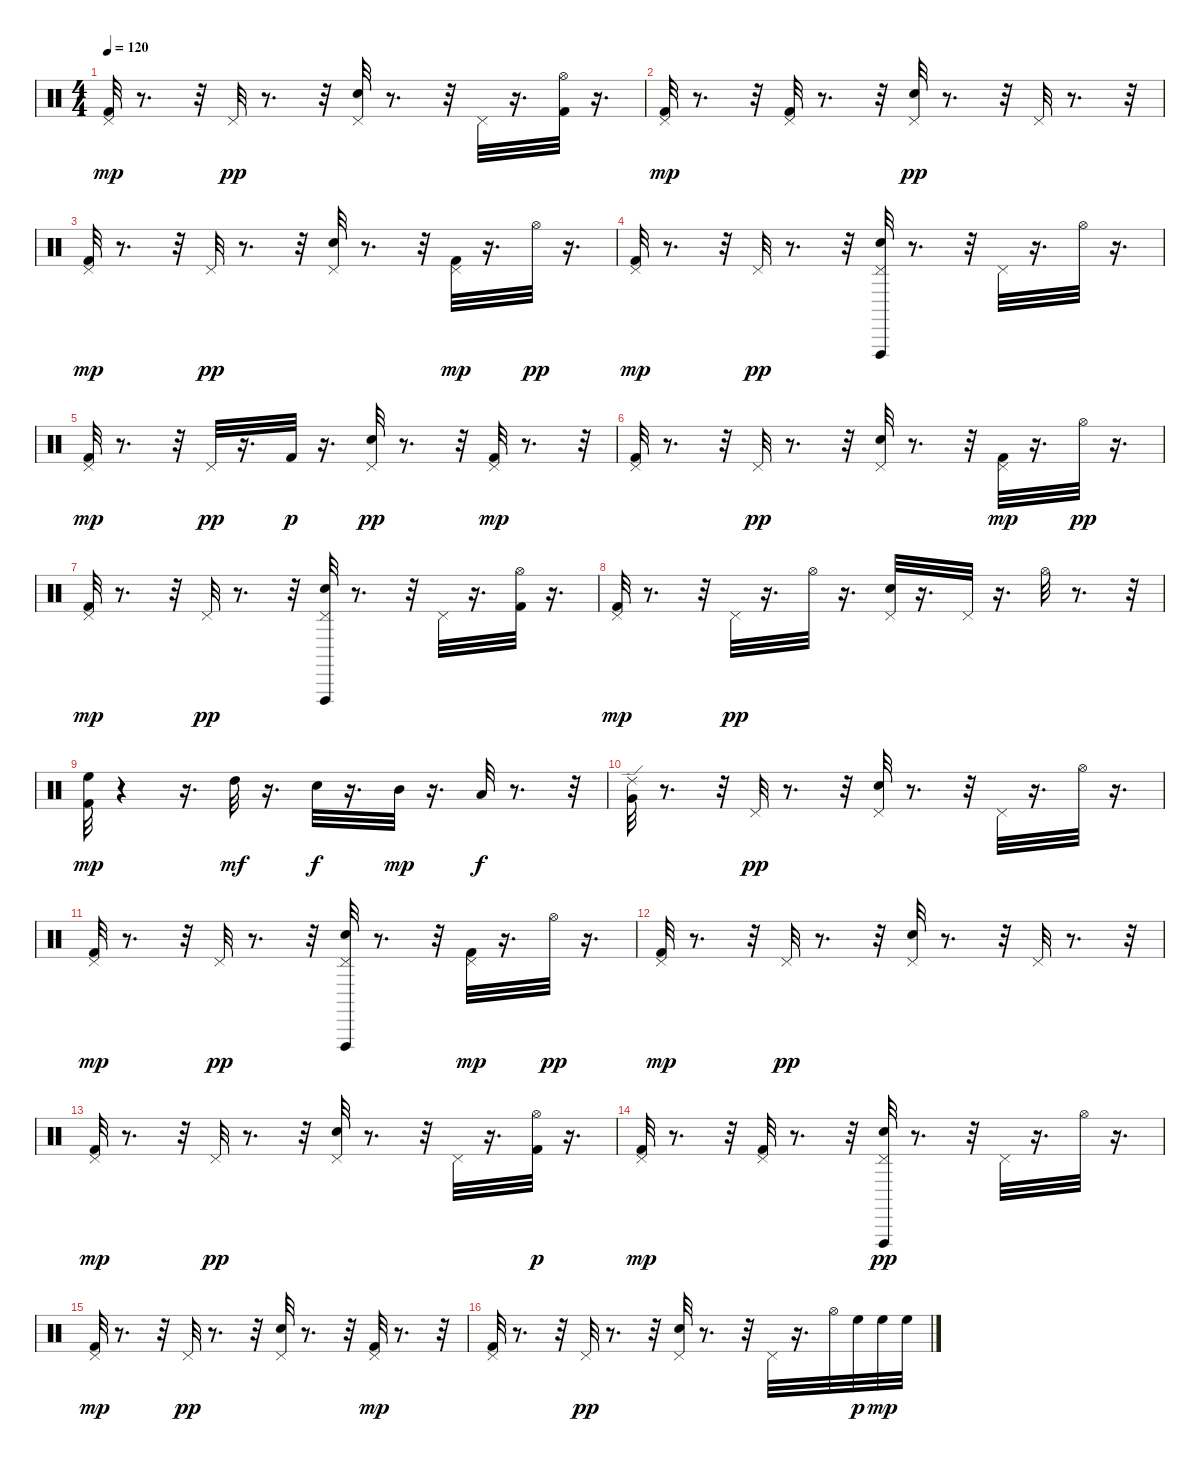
\track "" {instrument percussion}
\staff {score}
\articulation defaults
\ts (4 4)
\tempo 120
\clef neutral
\ks c
("Pedal Hi-Hat (hit)" "Kick (hit) 2").32{dy mp} r.8{d} r.32 "Pedal Hi-Hat (hit)".32{dy pp} r.8{d} r.32 ("Pedal Hi-Hat (hit)" "Snare (hit) 2").32 r.8{d} r.32 "Pedal Hi-Hat (hit)".32 r.16{d} ("Kick (hit) 2" "Hi-Hat (open)").32 r.16{d} |
("Pedal Hi-Hat (hit)" "Kick (hit) 2").32{dy mp} r.8{d} r.32 ("Pedal Hi-Hat (hit)" "Kick (hit) 2").32 r.8{d} r.32 ("Pedal Hi-Hat (hit)" "Snare (hit) 2").32{dy pp} r.8{d} r.32 "Pedal Hi-Hat (hit)".32 r.8{d} r.32 |
("Pedal Hi-Hat (hit)" "Kick (hit) 2").32{dy mp} r.8{d} r.32 "Pedal Hi-Hat (hit)".32{dy pp} r.8{d} r.32 ("Pedal Hi-Hat (hit)" "Snare (hit) 2").32 r.8{d} r.32 ("Pedal Hi-Hat (hit)" "Kick (hit) 2").32{dy mp} r.16{d} "Hi-Hat (open)".32{dy pp} r.16{d} |
("Pedal Hi-Hat (hit)" "Kick (hit) 2").32{dy mp} r.8{d} r.32 "Pedal Hi-Hat (hit)".32{dy pp} r.8{d} r.32 ("Vibraslap (hit)" "Pedal Hi-Hat (hit)" "Snare (hit) 2").32 r.8{d} r.32 "Pedal Hi-Hat (hit)".32 r.16{d} "Hi-Hat (open)".32 r.16{d} |
("Pedal Hi-Hat (hit)" "Kick (hit) 2").32{dy mp} r.8{d} r.32 "Pedal Hi-Hat (hit)".32{dy pp} r.16{d} "Kick (hit) 2".32{dy p} r.16{d} ("Pedal Hi-Hat (hit)" "Snare (hit) 2").32{dy pp} r.8{d} r.32 ("Pedal Hi-Hat (hit)" "Kick (hit) 2").32{dy mp} r.8{d} r.32 |
("Pedal Hi-Hat (hit)" "Kick (hit) 2").32 r.8{d} r.32 "Pedal Hi-Hat (hit)".32{dy pp} r.8{d} r.32 ("Pedal Hi-Hat (hit)" "Snare (hit) 2").32 r.8{d} r.32 ("Pedal Hi-Hat (hit)" "Kick (hit) 2").32{dy mp} r.16{d} "Hi-Hat (open)".32{dy pp} r.16{d} |
("Pedal Hi-Hat (hit)" "Kick (hit) 2").32{dy mp} r.8{d} r.32 "Pedal Hi-Hat (hit)".32{dy pp} r.8{d} r.32 ("Vibraslap (hit)" "Pedal Hi-Hat (hit)" "Snare (hit) 2").32 r.8{d} r.32 "Pedal Hi-Hat (hit)".32 r.16{d} ("Kick (hit) 2" "Hi-Hat (open)").32 r.16{d} |
("Pedal Hi-Hat (hit)" "Kick (hit) 2").32{dy mp} r.8{d} r.32 "Pedal Hi-Hat (hit)".32{dy pp} r.16{d} "Hi-Hat (open)".32 r.16{d} ("Pedal Hi-Hat (hit)" "Snare (hit) 2").32 r.16{d} "Pedal Hi-Hat (hit)".32 r.16{d} "Hi-Hat (open)".32 r.8{d} r.32 |
("Kick (hit) 2" "High Floor Tom (hit)").32{dy mp} r.4 r.16{d} "High Tom (hit)".32{dy mf} r.16{d} "Snare (hit) 2".32{dy f} r.16{d} "Mid Tom (hit)".32{dy mp} r.16{d} "Low Tom (hit)".32{dy f} r.8{d} r.32 |
("Very Low Tom (hit)" "Ride (edge) 2").32 r.8{d} r.32 "Pedal Hi-Hat (hit)".32{dy pp} r.8{d} r.32 ("Pedal Hi-Hat (hit)" "Snare (hit) 2").32 r.8{d} r.32 "Pedal Hi-Hat (hit)".32 r.16{d} "Hi-Hat (open)".32 r.16{d} |
("Pedal Hi-Hat (hit)" "Kick (hit) 2").32{dy mp} r.8{d} r.32 "Pedal Hi-Hat (hit)".32{dy pp} r.8{d} r.32 ("Vibraslap (hit)" "Pedal Hi-Hat (hit)" "Snare (hit) 2").32 r.8{d} r.32 ("Pedal Hi-Hat (hit)" "Kick (hit) 2").32{dy mp} r.16{d} "Hi-Hat (open)".32{dy pp} r.16{d} |
("Pedal Hi-Hat (hit)" "Kick (hit) 2").32{dy mp} r.8{d} r.32 "Pedal Hi-Hat (hit)".32{dy pp} r.8{d} r.32 ("Pedal Hi-Hat (hit)" "Snare (hit) 2").32 r.8{d} r.32 "Pedal Hi-Hat (hit)".32 r.8{d} r.32 |
("Pedal Hi-Hat (hit)" "Kick (hit) 2").32{dy mp} r.8{d} r.32 "Pedal Hi-Hat (hit)".32{dy pp} r.8{d} r.32 ("Pedal Hi-Hat (hit)" "Snare (hit) 2").32 r.8{d} r.32 "Pedal Hi-Hat (hit)".32 r.16{d} ("Hi-Hat (open)" "Kick (hit) 2").32{dy p} r.16{d} |
("Pedal Hi-Hat (hit)" "Kick (hit) 2").32{dy mp} r.8{d} r.32 ("Pedal Hi-Hat (hit)" "Kick (hit) 2").32 r.8{d} r.32 ("Vibraslap (hit)" "Pedal Hi-Hat (hit)" "Snare (hit) 2").32{dy pp} r.8{d} r.32 "Pedal Hi-Hat (hit)".32 r.16{d} "Hi-Hat (open)".32 r.16{d} |
("Pedal Hi-Hat (hit)" "Kick (hit) 2").32{dy mp} r.8{d} r.32 "Pedal Hi-Hat (hit)".32{dy pp} r.8{d} r.32 ("Pedal Hi-Hat (hit)" "Snare (hit) 2").32 r.8{d} r.32 ("Pedal Hi-Hat (hit)" "Kick (hit) 2").32{dy mp} r.8{d} r.32 |
("Pedal Hi-Hat (hit)" "Kick (hit) 2").32 r.8{d} r.32 "Pedal Hi-Hat (hit)".32{dy pp} r.8{d} r.32 ("Pedal Hi-Hat (hit)" "Snare (hit) 2").32 r.8{d} r.32 "Pedal Hi-Hat (hit)".32 r.16{d} "Hi-Hat (open)".32 "High Floor Tom (hit)".32{dy p} "High Floor Tom (hit)".32{dy mp} "High Floor Tom (hit)".32
